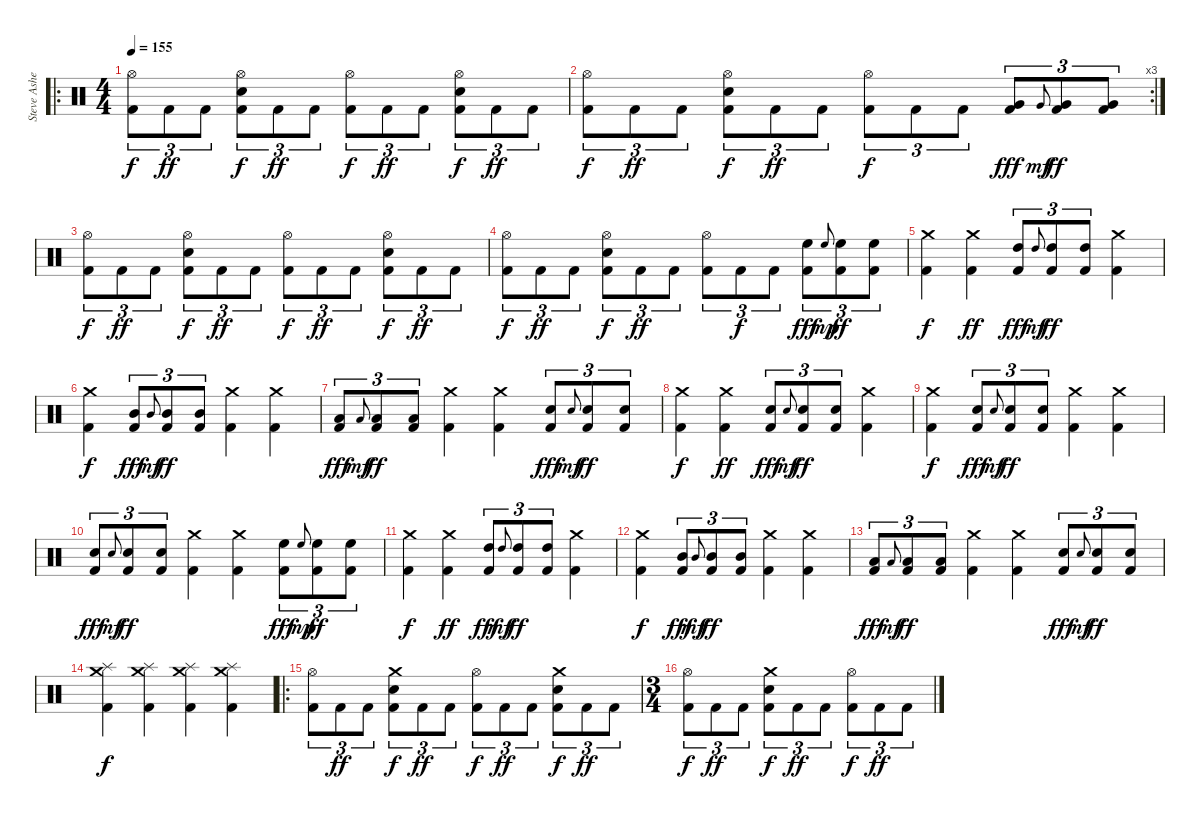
\track ("Steve Asheim " "Steve Ashe") {instrument percussion}
\staff {score}
\articulation defaults
\ro
\ts (4 4)
\tempo 155
\clef neutral
\ks c
("Hi-Hat (open)" "Kick (hit) 2").8{tu (3 2) dy f} "Kick (hit) 2".8{tu (3 2) dy ff} "Kick (hit) 2".8{tu (3 2)} ("Electric Snare (hit)" "Hi-Hat (open)" "Kick (hit) 2").8{tu (3 2) dy f} "Kick (hit) 2".8{tu (3 2) dy ff} "Kick (hit) 2".8{tu (3 2)} ("Hi-Hat (open)" "Kick (hit) 2").8{tu (3 2) dy f} "Kick (hit) 2".8{tu (3 2) dy ff} "Kick (hit) 2".8{tu (3 2)} ("Electric Snare (hit)" "Hi-Hat (open)" "Kick (hit) 2").8{tu (3 2) dy f} "Kick (hit) 2".8{tu (3 2) dy ff} "Kick (hit) 2".8{tu (3 2)} |
\rc 3
("Hi-Hat (open)" "Kick (hit) 2").8{tu (3 2) dy f} "Kick (hit) 2".8{tu (3 2) dy ff} "Kick (hit) 2".8{tu (3 2)} ("Electric Snare (hit)" "Hi-Hat (open)" "Kick (hit) 2").8{tu (3 2) dy f} "Kick (hit) 2".8{tu (3 2) dy ff} "Kick (hit) 2".8{tu (3 2)} ("Hi-Hat (open)" "Kick (hit) 2").8{tu (3 2) dy f} "Kick (hit) 2".8{tu (3 2)} "Kick (hit) 2".8{tu (3 2)} ("Very Low Tom (hit)" "Kick (hit) 2").8{tu (3 2) dy fff} "Very Low Tom (hit)".8{gr onbeat dy mf} ("Very Low Tom (hit)" "Kick (hit) 2").8{tu (3 2) dy ff} ("Very Low Tom (hit)" "Kick (hit) 2").8{tu (3 2)} |
("Hi-Hat (open)" "Kick (hit) 2").8{tu (3 2) dy f} "Kick (hit) 2".8{tu (3 2) dy ff} "Kick (hit) 2".8{tu (3 2)} ("Electric Snare (hit)" "Hi-Hat (open)" "Kick (hit) 2").8{tu (3 2) dy f} "Kick (hit) 2".8{tu (3 2) dy ff} "Kick (hit) 2".8{tu (3 2)} ("Hi-Hat (open)" "Kick (hit) 2").8{tu (3 2) dy f} "Kick (hit) 2".8{tu (3 2) dy ff} "Kick (hit) 2".8{tu (3 2)} ("Electric Snare (hit)" "Hi-Hat (open)" "Kick (hit) 2").8{tu (3 2) dy f} "Kick (hit) 2".8{tu (3 2) dy ff} "Kick (hit) 2".8{tu (3 2)} |
("Hi-Hat (open)" "Kick (hit) 2").8{tu (3 2) dy f} "Kick (hit) 2".8{tu (3 2) dy ff} "Kick (hit) 2".8{tu (3 2)} ("Electric Snare (hit)" "Hi-Hat (open)" "Kick (hit) 2").8{tu (3 2) dy f} "Kick (hit) 2".8{tu (3 2) dy ff} "Kick (hit) 2".8{tu (3 2)} ("Hi-Hat (open)" "Kick (hit) 2").8{tu (3 2)} "Kick (hit) 2".8{tu (3 2) dy f} "Kick (hit) 2".8{tu (3 2)} ("High Floor Tom (hit)" "Kick (hit) 2").8{tu (3 2) dy fff} "High Floor Tom (hit)".8{gr onbeat dy mp} ("High Floor Tom (hit)" "Kick (hit) 2").8{tu (3 2) dy ff} ("High Floor Tom (hit)" "Kick (hit) 2").8{tu (3 2)} |
("Crash medium (hit)" "Kick (hit) 2").4{dy f} ("Crash medium (hit)" "Kick (hit) 2").4{dy ff} ("High Tom (hit)" "Kick (hit) 2").8{tu (3 2) dy fff} "High Tom (hit)".8{gr onbeat dy mf} ("High Tom (hit)" "Kick (hit) 2").8{tu (3 2) dy ff} ("High Tom (hit)" "Kick (hit) 2").8{tu (3 2)} ("Crash medium (hit)" "Kick (hit) 2").4 |
("Crash medium (hit)" "Kick (hit) 2").4{dy f} ("Mid Tom (hit)" "Kick (hit) 2").8{tu (3 2) dy fff} "Mid Tom (hit)".8{gr onbeat dy mf} ("Mid Tom (hit)" "Kick (hit) 2").8{tu (3 2) dy ff} ("Mid Tom (hit)" "Kick (hit) 2").8{tu (3 2)} ("Crash medium (hit)" "Kick (hit) 2").4 ("Crash medium (hit)" "Kick (hit) 2").4 |
("Low Tom (hit)" "Kick (hit) 2").8{tu (3 2) dy fff} "Low Tom (hit)".8{gr onbeat dy mf} ("Low Tom (hit)" "Kick (hit) 2").8{tu (3 2) dy ff} ("Low Tom (hit)" "Kick (hit) 2").8{tu (3 2)} ("Crash medium (hit)" "Kick (hit) 2").4 ("Crash medium (hit)" "Kick (hit) 2").4 ("Electric Snare (hit)" "Kick (hit) 2").8{tu (3 2) dy fff} "Electric Snare (hit)".8{gr onbeat dy mf} ("Electric Snare (hit)" "Kick (hit) 2").8{tu (3 2) dy ff} ("Electric Snare (hit)" "Kick (hit) 2").8{tu (3 2)} |
("Crash medium (hit)" "Kick (hit) 2").4{dy f} ("Crash medium (hit)" "Kick (hit) 2").4{dy ff} ("Electric Snare (hit)" "Kick (hit) 2").8{tu (3 2) dy fff} "Electric Snare (hit)".8{gr onbeat dy mf} ("Electric Snare (hit)" "Kick (hit) 2").8{tu (3 2) dy ff} ("Electric Snare (hit)" "Kick (hit) 2").8{tu (3 2)} ("Crash medium (hit)" "Kick (hit) 2").4 |
("Crash medium (hit)" "Kick (hit) 2").4{dy f} ("Electric Snare (hit)" "Kick (hit) 2").8{tu (3 2) dy fff} "Electric Snare (hit)".8{gr onbeat dy mf} ("Electric Snare (hit)" "Kick (hit) 2").8{tu (3 2) dy ff} ("Electric Snare (hit)" "Kick (hit) 2").8{tu (3 2)} ("Crash medium (hit)" "Kick (hit) 2").4 ("Crash medium (hit)" "Kick (hit) 2").4 |
("Electric Snare (hit)" "Kick (hit) 2").8{tu (3 2) dy fff} "Electric Snare (hit)".8{gr onbeat dy mf} ("Electric Snare (hit)" "Kick (hit) 2").8{tu (3 2) dy ff} ("Electric Snare (hit)" "Kick (hit) 2").8{tu (3 2)} ("Crash medium (hit)" "Kick (hit) 2").4 ("Crash medium (hit)" "Kick (hit) 2").4 ("High Floor Tom (hit)" "Kick (hit) 2").8{tu (3 2) dy fff} "High Floor Tom (hit)".8{gr onbeat dy mp} ("High Floor Tom (hit)" "Kick (hit) 2").8{tu (3 2) dy ff} ("High Floor Tom (hit)" "Kick (hit) 2").8{tu (3 2)} |
("Crash medium (hit)" "Kick (hit) 2").4{dy f} ("Crash medium (hit)" "Kick (hit) 2").4{dy ff} ("High Tom (hit)" "Kick (hit) 2").8{tu (3 2) dy fff} "High Tom (hit)".8{gr onbeat dy mf} ("High Tom (hit)" "Kick (hit) 2").8{tu (3 2) dy ff} ("High Tom (hit)" "Kick (hit) 2").8{tu (3 2)} ("Crash medium (hit)" "Kick (hit) 2").4 |
("Crash medium (hit)" "Kick (hit) 2").4{dy f} ("Mid Tom (hit)" "Kick (hit) 2").8{tu (3 2) dy fff} "Mid Tom (hit)".8{gr onbeat dy mf} ("Mid Tom (hit)" "Kick (hit) 2").8{tu (3 2) dy ff} ("Mid Tom (hit)" "Kick (hit) 2").8{tu (3 2)} ("Crash medium (hit)" "Kick (hit) 2").4 ("Crash medium (hit)" "Kick (hit) 2").4 |
("Low Tom (hit)" "Kick (hit) 2").8{tu (3 2) dy fff} "Low Tom (hit)".8{gr onbeat dy mf} ("Low Tom (hit)" "Kick (hit) 2").8{tu (3 2) dy ff} ("Low Tom (hit)" "Kick (hit) 2").8{tu (3 2)} ("Crash medium (hit)" "Kick (hit) 2").4 ("Crash medium (hit)" "Kick (hit) 2").4 ("Electric Snare (hit)" "Kick (hit) 2").8{tu (3 2) dy fff} "Electric Snare (hit)".8{gr onbeat dy mf} ("Electric Snare (hit)" "Kick (hit) 2").8{tu (3 2) dy ff} ("Electric Snare (hit)" "Kick (hit) 2").8{tu (3 2)} |
("Crash medium (hit)" "Splash (hit)" "Kick (hit) 2").4{dy f} ("Crash medium (hit)" "Splash (hit)" "Kick (hit) 2").4 ("Crash medium (hit)" "Splash (hit)" "Kick (hit) 2").4 ("Crash medium (hit)" "Splash (hit)" "Kick (hit) 2").4 |
\ro
("Hi-Hat (open)" "Kick (hit) 2").8{tu (3 2)} "Kick (hit) 2".8{tu (3 2) dy ff} "Kick (hit) 2".8{tu (3 2)} ("Electric Snare (hit)" "Crash medium (hit)" "Kick (hit) 2").8{tu (3 2) dy f} "Kick (hit) 2".8{tu (3 2) dy ff} "Kick (hit) 2".8{tu (3 2)} ("Hi-Hat (open)" "Kick (hit) 2").8{tu (3 2) dy f} "Kick (hit) 2".8{tu (3 2) dy ff} "Kick (hit) 2".8{tu (3 2)} ("Electric Snare (hit)" "Crash medium (hit)" "Kick (hit) 2").8{tu (3 2) dy f} "Kick (hit) 2".8{tu (3 2) dy ff} "Kick (hit) 2".8{tu (3 2)} |
\ts (3 4)
("Hi-Hat (open)" "Kick (hit) 2").8{tu (3 2) dy f} "Kick (hit) 2".8{tu (3 2) dy ff} "Kick (hit) 2".8{tu (3 2)} ("Electric Snare (hit)" "Crash medium (hit)" "Kick (hit) 2").8{tu (3 2) dy f} "Kick (hit) 2".8{tu (3 2) dy ff} "Kick (hit) 2".8{tu (3 2)} ("Hi-Hat (open)" "Kick (hit) 2").8{tu (3 2) dy f} "Kick (hit) 2".8{tu (3 2) dy ff} "Kick (hit) 2".8{tu (3 2)}
